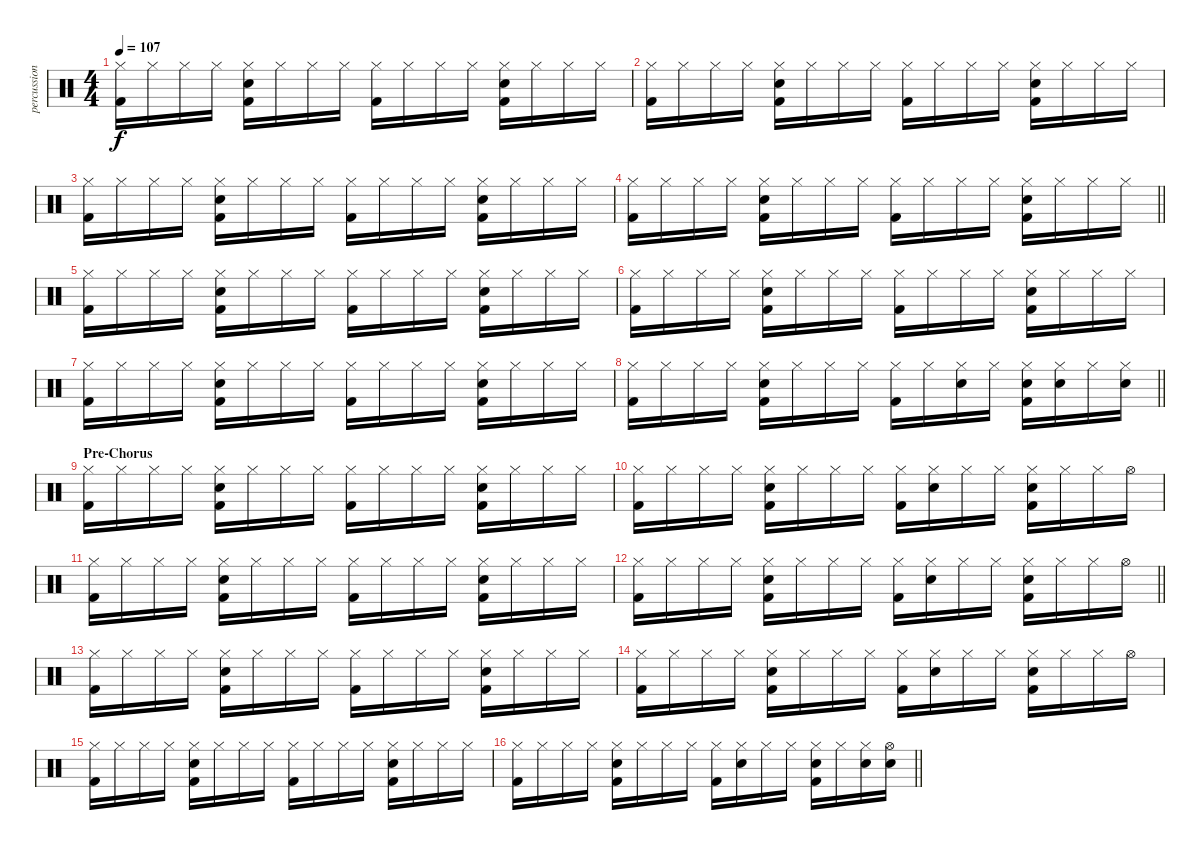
\track ("percussion" "percussion") {instrument percussion}
\staff {score}
\articulation defaults
\ts (4 4)
\tempo 107
\clef neutral
\ks c
("Hi-Hat (closed)" "Kick (hit) 2").16{dy f} "Hi-Hat (closed)".16 "Hi-Hat (closed)".16 "Hi-Hat (closed)".16 ("Snare (hit) 2" "Hi-Hat (closed)" "Kick (hit) 2").16 "Hi-Hat (closed)".16 "Hi-Hat (closed)".16 "Hi-Hat (closed)".16 ("Hi-Hat (closed)" "Kick (hit) 2").16 "Hi-Hat (closed)".16 "Hi-Hat (closed)".16 "Hi-Hat (closed)".16 ("Snare (hit) 2" "Hi-Hat (closed)" "Kick (hit) 2").16 "Hi-Hat (closed)".16 "Hi-Hat (closed)".16 "Hi-Hat (closed)".16 |
("Hi-Hat (closed)" "Kick (hit) 2").16 "Hi-Hat (closed)".16 "Hi-Hat (closed)".16 "Hi-Hat (closed)".16 ("Snare (hit) 2" "Hi-Hat (closed)" "Kick (hit) 2").16 "Hi-Hat (closed)".16 "Hi-Hat (closed)".16 "Hi-Hat (closed)".16 ("Hi-Hat (closed)" "Kick (hit) 2").16 "Hi-Hat (closed)".16 "Hi-Hat (closed)".16 "Hi-Hat (closed)".16 ("Snare (hit) 2" "Hi-Hat (closed)" "Kick (hit) 2").16 "Hi-Hat (closed)".16 "Hi-Hat (closed)".16 "Hi-Hat (closed)".16 |
("Hi-Hat (closed)" "Kick (hit) 2").16 "Hi-Hat (closed)".16 "Hi-Hat (closed)".16 "Hi-Hat (closed)".16 ("Snare (hit) 2" "Hi-Hat (closed)" "Kick (hit) 2").16 "Hi-Hat (closed)".16 "Hi-Hat (closed)".16 "Hi-Hat (closed)".16 ("Hi-Hat (closed)" "Kick (hit) 2").16 "Hi-Hat (closed)".16 "Hi-Hat (closed)".16 "Hi-Hat (closed)".16 ("Snare (hit) 2" "Hi-Hat (closed)" "Kick (hit) 2").16 "Hi-Hat (closed)".16 "Hi-Hat (closed)".16 "Hi-Hat (closed)".16 |
\barLineRight lightlight
("Hi-Hat (closed)" "Kick (hit) 2").16 "Hi-Hat (closed)".16 "Hi-Hat (closed)".16 "Hi-Hat (closed)".16 ("Snare (hit) 2" "Hi-Hat (closed)" "Kick (hit) 2").16 "Hi-Hat (closed)".16 "Hi-Hat (closed)".16 "Hi-Hat (closed)".16 ("Hi-Hat (closed)" "Kick (hit) 2").16 "Hi-Hat (closed)".16 "Hi-Hat (closed)".16 "Hi-Hat (closed)".16 ("Snare (hit) 2" "Hi-Hat (closed)" "Kick (hit) 2").16 "Hi-Hat (closed)".16 "Hi-Hat (closed)".16 "Hi-Hat (closed)".16 |
("Hi-Hat (closed)" "Kick (hit) 2").16 "Hi-Hat (closed)".16 "Hi-Hat (closed)".16 "Hi-Hat (closed)".16 ("Snare (hit) 2" "Hi-Hat (closed)" "Kick (hit) 2").16 "Hi-Hat (closed)".16 "Hi-Hat (closed)".16 "Hi-Hat (closed)".16 ("Hi-Hat (closed)" "Kick (hit) 2").16 "Hi-Hat (closed)".16 "Hi-Hat (closed)".16 "Hi-Hat (closed)".16 ("Snare (hit) 2" "Hi-Hat (closed)" "Kick (hit) 2").16 "Hi-Hat (closed)".16 "Hi-Hat (closed)".16 "Hi-Hat (closed)".16 |
("Hi-Hat (closed)" "Kick (hit) 2").16 "Hi-Hat (closed)".16 "Hi-Hat (closed)".16 "Hi-Hat (closed)".16 ("Snare (hit) 2" "Hi-Hat (closed)" "Kick (hit) 2").16 "Hi-Hat (closed)".16 "Hi-Hat (closed)".16 "Hi-Hat (closed)".16 ("Hi-Hat (closed)" "Kick (hit) 2").16 "Hi-Hat (closed)".16 "Hi-Hat (closed)".16 "Hi-Hat (closed)".16 ("Snare (hit) 2" "Hi-Hat (closed)" "Kick (hit) 2").16 "Hi-Hat (closed)".16 "Hi-Hat (closed)".16 "Hi-Hat (closed)".16 |
("Hi-Hat (closed)" "Kick (hit) 2").16 "Hi-Hat (closed)".16 "Hi-Hat (closed)".16 "Hi-Hat (closed)".16 ("Snare (hit) 2" "Hi-Hat (closed)" "Kick (hit) 2").16 "Hi-Hat (closed)".16 "Hi-Hat (closed)".16 "Hi-Hat (closed)".16 ("Hi-Hat (closed)" "Kick (hit) 2").16 "Hi-Hat (closed)".16 "Hi-Hat (closed)".16 "Hi-Hat (closed)".16 ("Snare (hit) 2" "Hi-Hat (closed)" "Kick (hit) 2").16 "Hi-Hat (closed)".16 "Hi-Hat (closed)".16 "Hi-Hat (closed)".16 |
\barLineRight lightlight
("Hi-Hat (closed)" "Kick (hit) 2").16 "Hi-Hat (closed)".16 "Hi-Hat (closed)".16 "Hi-Hat (closed)".16 ("Snare (hit) 2" "Hi-Hat (closed)" "Kick (hit) 2").16 "Hi-Hat (closed)".16 "Hi-Hat (closed)".16 "Hi-Hat (closed)".16 ("Hi-Hat (closed)" "Kick (hit) 2").16 "Hi-Hat (closed)".16 ("Snare (hit) 2" "Hi-Hat (closed)").16 "Hi-Hat (closed)".16 ("Snare (hit) 2" "Hi-Hat (closed)" "Kick (hit) 2").16 ("Snare (hit) 2" "Hi-Hat (closed)").16 "Hi-Hat (closed)".16 ("Snare (hit) 2" "Hi-Hat (closed)").16 |
\section ("" "Pre-Chorus")
("Hi-Hat (closed)" "Kick (hit) 2").16 "Hi-Hat (closed)".16 "Hi-Hat (closed)".16 "Hi-Hat (closed)".16 ("Snare (hit) 2" "Hi-Hat (closed)" "Kick (hit) 2").16 "Hi-Hat (closed)".16 "Hi-Hat (closed)".16 "Hi-Hat (closed)".16 ("Hi-Hat (closed)" "Kick (hit) 2").16 "Hi-Hat (closed)".16 "Hi-Hat (closed)".16 "Hi-Hat (closed)".16 ("Snare (hit) 2" "Hi-Hat (closed)" "Kick (hit) 2").16 "Hi-Hat (closed)".16 "Hi-Hat (closed)".16 "Hi-Hat (closed)".16 |
("Hi-Hat (closed)" "Kick (hit) 2").16 "Hi-Hat (closed)".16 "Hi-Hat (closed)".16 "Hi-Hat (closed)".16 ("Snare (hit) 2" "Hi-Hat (closed)" "Kick (hit) 2").16 "Hi-Hat (closed)".16 "Hi-Hat (closed)".16 "Hi-Hat (closed)".16 ("Hi-Hat (closed)" "Kick (hit) 2").16 ("Snare (hit) 2" "Hi-Hat (closed)").16 "Hi-Hat (closed)".16 "Hi-Hat (closed)".16 ("Snare (hit) 2" "Hi-Hat (closed)" "Kick (hit) 2").16 "Hi-Hat (closed)".16 "Hi-Hat (closed)".16 "Hi-Hat (open)".16 |
("Hi-Hat (closed)" "Kick (hit) 2").16 "Hi-Hat (closed)".16 "Hi-Hat (closed)".16 "Hi-Hat (closed)".16 ("Snare (hit) 2" "Hi-Hat (closed)" "Kick (hit) 2").16 "Hi-Hat (closed)".16 "Hi-Hat (closed)".16 "Hi-Hat (closed)".16 ("Hi-Hat (closed)" "Kick (hit) 2").16 "Hi-Hat (closed)".16 "Hi-Hat (closed)".16 "Hi-Hat (closed)".16 ("Snare (hit) 2" "Hi-Hat (closed)" "Kick (hit) 2").16 "Hi-Hat (closed)".16 "Hi-Hat (closed)".16 "Hi-Hat (closed)".16 |
\barLineRight lightlight
("Hi-Hat (closed)" "Kick (hit) 2").16 "Hi-Hat (closed)".16 "Hi-Hat (closed)".16 "Hi-Hat (closed)".16 ("Snare (hit) 2" "Hi-Hat (closed)" "Kick (hit) 2").16 "Hi-Hat (closed)".16 "Hi-Hat (closed)".16 "Hi-Hat (closed)".16 ("Hi-Hat (closed)" "Kick (hit) 2").16 ("Snare (hit) 2" "Hi-Hat (closed)").16 "Hi-Hat (closed)".16 "Hi-Hat (closed)".16 ("Snare (hit) 2" "Hi-Hat (closed)" "Kick (hit) 2").16 "Hi-Hat (closed)".16 "Hi-Hat (closed)".16 "Hi-Hat (open)".16 |
("Hi-Hat (closed)" "Kick (hit) 2").16 "Hi-Hat (closed)".16 "Hi-Hat (closed)".16 "Hi-Hat (closed)".16 ("Snare (hit) 2" "Hi-Hat (closed)" "Kick (hit) 2").16 "Hi-Hat (closed)".16 "Hi-Hat (closed)".16 "Hi-Hat (closed)".16 ("Hi-Hat (closed)" "Kick (hit) 2").16 "Hi-Hat (closed)".16 "Hi-Hat (closed)".16 "Hi-Hat (closed)".16 ("Snare (hit) 2" "Hi-Hat (closed)" "Kick (hit) 2").16 "Hi-Hat (closed)".16 "Hi-Hat (closed)".16 "Hi-Hat (closed)".16 |
("Hi-Hat (closed)" "Kick (hit) 2").16 "Hi-Hat (closed)".16 "Hi-Hat (closed)".16 "Hi-Hat (closed)".16 ("Snare (hit) 2" "Hi-Hat (closed)" "Kick (hit) 2").16 "Hi-Hat (closed)".16 "Hi-Hat (closed)".16 "Hi-Hat (closed)".16 ("Hi-Hat (closed)" "Kick (hit) 2").16 ("Snare (hit) 2" "Hi-Hat (closed)").16 "Hi-Hat (closed)".16 "Hi-Hat (closed)".16 ("Snare (hit) 2" "Hi-Hat (closed)" "Kick (hit) 2").16 "Hi-Hat (closed)".16 "Hi-Hat (closed)".16 "Hi-Hat (open)".16 |
("Hi-Hat (closed)" "Kick (hit) 2").16 "Hi-Hat (closed)".16 "Hi-Hat (closed)".16 "Hi-Hat (closed)".16 ("Snare (hit) 2" "Hi-Hat (closed)" "Kick (hit) 2").16 "Hi-Hat (closed)".16 "Hi-Hat (closed)".16 "Hi-Hat (closed)".16 ("Hi-Hat (closed)" "Kick (hit) 2").16 "Hi-Hat (closed)".16 "Hi-Hat (closed)".16 "Hi-Hat (closed)".16 ("Snare (hit) 2" "Hi-Hat (closed)" "Kick (hit) 2").16 "Hi-Hat (closed)".16 "Hi-Hat (closed)".16 "Hi-Hat (closed)".16 |
\barLineRight lightlight
("Hi-Hat (closed)" "Kick (hit) 2").16 "Hi-Hat (closed)".16 "Hi-Hat (closed)".16 "Hi-Hat (closed)".16 ("Snare (hit) 2" "Hi-Hat (closed)" "Kick (hit) 2").16 "Hi-Hat (closed)".16 "Hi-Hat (closed)".16 "Hi-Hat (closed)".16 ("Hi-Hat (closed)" "Kick (hit) 2").16 ("Snare (hit) 2" "Hi-Hat (closed)").16 "Hi-Hat (closed)".16 "Hi-Hat (closed)".16 ("Snare (hit) 2" "Hi-Hat (closed)" "Kick (hit) 2").16 "Hi-Hat (closed)".16 ("Snare (hit) 2" "Hi-Hat (closed)").16 ("Snare (hit) 2" "Hi-Hat (open)").16
